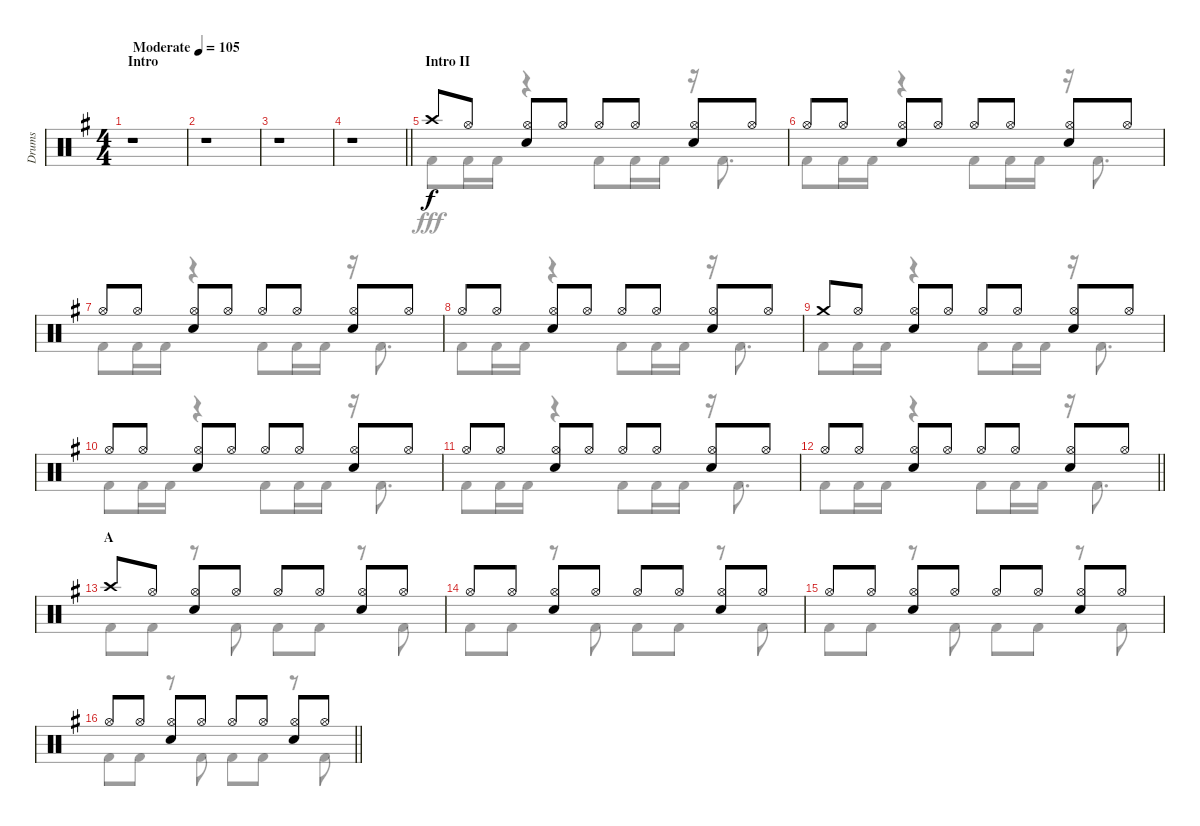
\track ("Drums" "Drums") {instrument percussion}
\staff {score}
\articulation defaults
\voice
\ts (4 4)
\section ("" "Intro")
\tempo (105 "Moderate")
\clef neutral
\ks g
r.1{dy f} |
r.1 |
r.1 |
\barLineRight lightlight
r.1 |
\section ("" "Intro II")
"Crash high (hit)".8 "Hi-Hat (open)".8 ("Hi-Hat (open)" "Snare (hit) 2").8 "Hi-Hat (open)".8 "Hi-Hat (open)".8 "Hi-Hat (open)".8 ("Hi-Hat (open)" "Snare (hit) 2").8 "Hi-Hat (open)".8 |
"Hi-Hat (open)".8 "Hi-Hat (open)".8 ("Hi-Hat (open)" "Snare (hit) 2").8 "Hi-Hat (open)".8 "Hi-Hat (open)".8 "Hi-Hat (open)".8 ("Hi-Hat (open)" "Snare (hit) 2").8 "Hi-Hat (open)".8 |
"Hi-Hat (open)".8 "Hi-Hat (open)".8 ("Hi-Hat (open)" "Snare (hit) 2").8 "Hi-Hat (open)".8 "Hi-Hat (open)".8 "Hi-Hat (open)".8 ("Hi-Hat (open)" "Snare (hit) 2").8 "Hi-Hat (open)".8 |
"Hi-Hat (open)".8 "Hi-Hat (open)".8 ("Hi-Hat (open)" "Snare (hit) 2").8 "Hi-Hat (open)".8 "Hi-Hat (open)".8 "Hi-Hat (open)".8 ("Hi-Hat (open)" "Snare (hit) 2").8 "Hi-Hat (open)".8 |
"Crash medium (hit)".8 "Hi-Hat (open)".8 ("Hi-Hat (open)" "Snare (hit) 2").8 "Hi-Hat (open)".8 "Hi-Hat (open)".8 "Hi-Hat (open)".8 ("Hi-Hat (open)" "Snare (hit) 2").8 "Hi-Hat (open)".8 |
"Hi-Hat (open)".8 "Hi-Hat (open)".8 ("Hi-Hat (open)" "Snare (hit) 2").8 "Hi-Hat (open)".8 "Hi-Hat (open)".8 "Hi-Hat (open)".8 ("Hi-Hat (open)" "Snare (hit) 2").8 "Hi-Hat (open)".8 |
"Hi-Hat (open)".8 "Hi-Hat (open)".8 ("Hi-Hat (open)" "Snare (hit) 2").8 "Hi-Hat (open)".8 "Hi-Hat (open)".8 "Hi-Hat (open)".8 ("Hi-Hat (open)" "Snare (hit) 2").8 "Hi-Hat (open)".8 |
\barLineRight lightlight "Hi-Hat (open)".8 "Hi-Hat (open)".8
("Hi-Hat (open)" "Snare (hit) 2").8 "Hi-Hat (open)".8 "Hi-Hat (open)".8 "Hi-Hat (open)".8 ("Hi-Hat (open)" "Snare (hit) 2").8 "Hi-Hat (open)".8 |
\section ("" "A")
"Crash high (hit)".8 "Hi-Hat (open)".8 ("Hi-Hat (open)" "Snare (hit) 2").8 "Hi-Hat (open)".8 "Hi-Hat (open)".8 "Hi-Hat (open)".8 ("Hi-Hat (open)" "Snare (hit) 2").8 "Hi-Hat (open)".8 |
"Hi-Hat (open)".8 "Hi-Hat (open)".8 ("Hi-Hat (open)" "Snare (hit) 2").8 "Hi-Hat (open)".8 "Hi-Hat (open)".8 "Hi-Hat (open)".8 ("Hi-Hat (open)" "Snare (hit) 2").8 "Hi-Hat (open)".8 |
"Hi-Hat (open)".8 "Hi-Hat (open)".8 ("Hi-Hat (open)" "Snare (hit) 2").8 "Hi-Hat (open)".8 "Hi-Hat (open)".8 "Hi-Hat (open)".8 ("Hi-Hat (open)" "Snare (hit) 2").8 "Hi-Hat (open)".8 |
\barLineRight lightlight "Hi-Hat (open)".8 "Hi-Hat (open)".8
("Hi-Hat (open)" "Snare (hit) 2").8 "Hi-Hat (open)".8 "Hi-Hat (open)".8 "Hi-Hat (open)".8 ("Hi-Hat (open)" "Snare (hit) 2").8 "Hi-Hat (open)".8
\voice
\clef neutral
\ottava regular
\simile none
\ks g
r.1{dy fff} |
r.1 |
r.1 |
\barLineRight lightlight
r.1 |
"Kick (hit) 2".8 "Kick (hit) 2".16 "Kick (hit) 2".16 r.4 "Kick (hit) 2".8 "Kick (hit) 2".16 "Kick (hit) 2".16 r.16 "Kick (hit) 2".8{d} |
"Kick (hit) 2".8 "Kick (hit) 2".16 "Kick (hit) 2".16 r.4 "Kick (hit) 2".8 "Kick (hit) 2".16 "Kick (hit) 2".16 r.16 "Kick (hit) 2".8{d} |
"Kick (hit) 2".8 "Kick (hit) 2".16 "Kick (hit) 2".16 r.4 "Kick (hit) 2".8 "Kick (hit) 2".16 "Kick (hit) 2".16 r.16 "Kick (hit) 2".8{d} |
"Kick (hit) 2".8 "Kick (hit) 2".16 "Kick (hit) 2".16 r.4 "Kick (hit) 2".8 "Kick (hit) 2".16 "Kick (hit) 2".16 r.16 "Kick (hit) 2".8{d} |
"Kick (hit) 2".8 "Kick (hit) 2".16 "Kick (hit) 2".16 r.4 "Kick (hit) 2".8 "Kick (hit) 2".16 "Kick (hit) 2".16 r.16 "Kick (hit) 2".8{d} |
"Kick (hit) 2".8 "Kick (hit) 2".16 "Kick (hit) 2".16 r.4 "Kick (hit) 2".8 "Kick (hit) 2".16 "Kick (hit) 2".16 r.16 "Kick (hit) 2".8{d} |
"Kick (hit) 2".8 "Kick (hit) 2".16 "Kick (hit) 2".16 r.4 "Kick (hit) 2".8 "Kick (hit) 2".16 "Kick (hit) 2".16 r.16 "Kick (hit) 2".8{d} |
\barLineRight lightlight "Kick (hit) 2".8 "Kick (hit) 2".16 "Kick (hit) 2".16
r.4 "Kick (hit) 2".8 "Kick (hit) 2".16 "Kick (hit) 2".16 r.16 "Kick (hit) 2".8{d} |
"Kick (hit) 2".8 "Kick (hit) 2".8 r.8 "Kick (hit) 2".8 "Kick (hit) 2".8 "Kick (hit) 2".8 r.8 "Kick (hit) 2".8 |
"Kick (hit) 2".8 "Kick (hit) 2".8 r.8 "Kick (hit) 2".8 "Kick (hit) 2".8 "Kick (hit) 2".8 r.8 "Kick (hit) 2".8 |
"Kick (hit) 2".8 "Kick (hit) 2".8 r.8 "Kick (hit) 2".8 "Kick (hit) 2".8 "Kick (hit) 2".8 r.8 "Kick (hit) 2".8 |
\barLineRight lightlight "Kick (hit) 2".8 "Kick (hit) 2".8
r.8 "Kick (hit) 2".8 "Kick (hit) 2".8 "Kick (hit) 2".8 r.8 "Kick (hit) 2".8
